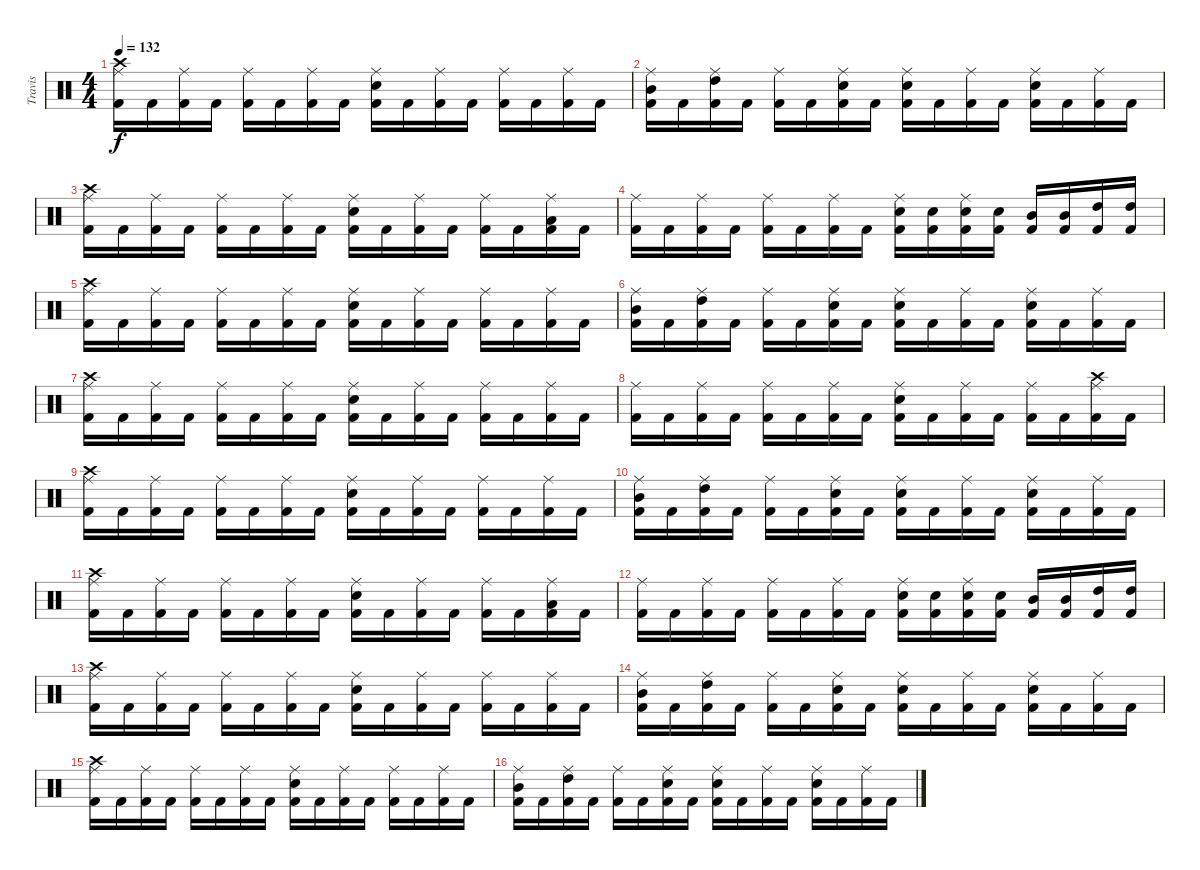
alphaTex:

\track ("Travis" "Travis") {instrument percussion}
\staff {score}
\articulation defaults
\ts (4 4)
\tempo 132
\clef neutral
\ks c
("Crash high (hit)" "Ride (middle)" "Kick (hit) 2").16{dy f} "Kick (hit) 2".16 ("Ride (middle)" "Kick (hit) 2").16 "Kick (hit) 2".16 ("Ride (middle)" "Kick (hit) 2").16 "Kick (hit) 2".16 ("Ride (middle)" "Kick (hit) 2").16 "Kick (hit) 2".16 ("Ride (middle)" "Snare (hit) 2" "Kick (hit) 2").16 "Kick (hit) 2".16 ("Ride (middle)" "Kick (hit) 2").16 "Kick (hit) 2".16 ("Ride (middle)" "Kick (hit) 2").16 "Kick (hit) 2".16 ("Ride (middle)" "Kick (hit) 2").16 "Kick (hit) 2".16 |
("Ride (middle)" "Mid Tom (hit)" "Kick (hit) 2").16 "Kick (hit) 2".16 ("Ride (middle)" "High Tom (hit)" "Kick (hit) 2").16 "Kick (hit) 2".16 ("Ride (middle)" "Kick (hit) 2").16 "Kick (hit) 2".16 ("Ride (middle)" "Snare (hit) 2" "Kick (hit) 2").16 "Kick (hit) 2".16 ("Ride (middle)" "Snare (hit) 2" "Kick (hit) 2").16 "Kick (hit) 2".16 ("Ride (middle)" "Kick (hit) 2").16 "Kick (hit) 2".16 ("Ride (middle)" "Snare (hit) 2" "Kick (hit) 2").16 "Kick (hit) 2".16 ("Ride (middle)" "Kick (hit) 2").16 "Kick (hit) 2".16 |
("Crash high (hit)" "Ride (middle)" "Kick (hit) 2").16 "Kick (hit) 2".16 ("Ride (middle)" "Kick (hit) 2").16 "Kick (hit) 2".16 ("Ride (middle)" "Kick (hit) 2").16 "Kick (hit) 2".16 ("Ride (middle)" "Kick (hit) 2").16 "Kick (hit) 2".16 ("Ride (middle)" "Snare (hit) 2" "Kick (hit) 2").16 "Kick (hit) 2".16 ("Ride (middle)" "Kick (hit) 2").16 "Kick (hit) 2".16 ("Ride (middle)" "Kick (hit) 2").16 "Kick (hit) 2".16 ("Ride (middle)" "Low Tom (hit)" "Kick (hit) 2").16 "Kick (hit) 2".16 |
("Ride (middle)" "Kick (hit) 2").16 "Kick (hit) 2".16 ("Ride (middle)" "Kick (hit) 2").16 "Kick (hit) 2".16 ("Ride (middle)" "Kick (hit) 2").16 "Kick (hit) 2".16 ("Ride (middle)" "Kick (hit) 2").16 "Kick (hit) 2".16 ("Ride (middle)" "Snare (hit) 2" "Kick (hit) 2").16 ("Snare (hit) 2" "Kick (hit) 2").16 ("Ride (middle)" "Snare (hit) 2" "Kick (hit) 2").16 ("Snare (hit) 2" "Kick (hit) 2").16 ("Mid Tom (hit)" "Kick (hit) 2").16 ("Mid Tom (hit)" "Kick (hit) 2").16 ("High Tom (hit)" "Kick (hit) 2").16 ("High Tom (hit)" "Kick (hit) 2").16 |
("Crash high (hit)" "Ride (middle)" "Kick (hit) 2").16 "Kick (hit) 2".16 ("Ride (middle)" "Kick (hit) 2").16 "Kick (hit) 2".16 ("Ride (middle)" "Kick (hit) 2").16 "Kick (hit) 2".16 ("Ride (middle)" "Kick (hit) 2").16 "Kick (hit) 2".16 ("Ride (middle)" "Snare (hit) 2" "Kick (hit) 2").16 "Kick (hit) 2".16 ("Ride (middle)" "Kick (hit) 2").16 "Kick (hit) 2".16 ("Ride (middle)" "Kick (hit) 2").16 "Kick (hit) 2".16 ("Ride (middle)" "Kick (hit) 2").16 "Kick (hit) 2".16 |
("Ride (middle)" "Mid Tom (hit)" "Kick (hit) 2").16 "Kick (hit) 2".16 ("Ride (middle)" "High Tom (hit)" "Kick (hit) 2").16 "Kick (hit) 2".16 ("Ride (middle)" "Kick (hit) 2").16 "Kick (hit) 2".16 ("Ride (middle)" "Snare (hit) 2" "Kick (hit) 2").16 "Kick (hit) 2".16 ("Ride (middle)" "Snare (hit) 2" "Kick (hit) 2").16 "Kick (hit) 2".16 ("Ride (middle)" "Kick (hit) 2").16 "Kick (hit) 2".16 ("Ride (middle)" "Snare (hit) 2" "Kick (hit) 2").16 "Kick (hit) 2".16 ("Ride (middle)" "Kick (hit) 2").16 "Kick (hit) 2".16 |
("Crash high (hit)" "Ride (middle)" "Kick (hit) 2").16{volume 8} "Kick (hit) 2".16 ("Ride (middle)" "Kick (hit) 2").16 "Kick (hit) 2".16 ("Ride (middle)" "Kick (hit) 2").16 "Kick (hit) 2".16 ("Ride (middle)" "Kick (hit) 2").16 "Kick (hit) 2".16 ("Ride (middle)" "Snare (hit) 2" "Kick (hit) 2").16 "Kick (hit) 2".16 ("Ride (middle)" "Kick (hit) 2").16 "Kick (hit) 2".16 ("Ride (middle)" "Kick (hit) 2").16 "Kick (hit) 2".16 ("Ride (middle)" "Kick (hit) 2").16 "Kick (hit) 2".16 |
("Ride (middle)" "Kick (hit) 2").16 "Kick (hit) 2".16 ("Ride (middle)" "Kick (hit) 2").16 "Kick (hit) 2".16 ("Ride (middle)" "Kick (hit) 2").16 "Kick (hit) 2".16 ("Ride (middle)" "Kick (hit) 2").16 "Kick (hit) 2".16 ("Ride (middle)" "Snare (hit) 2" "Kick (hit) 2").16 "Kick (hit) 2".16 ("Ride (middle)" "Kick (hit) 2").16 "Kick (hit) 2".16 ("Ride (middle)" "Kick (hit) 2").16 "Kick (hit) 2".16 ("Crash high (hit)" "Ride (middle)" "Kick (hit) 2").16 "Kick (hit) 2".16 |
("Crash high (hit)" "Ride (middle)" "Kick (hit) 2").16 "Kick (hit) 2".16 ("Ride (middle)" "Kick (hit) 2").16 "Kick (hit) 2".16 ("Ride (middle)" "Kick (hit) 2").16 "Kick (hit) 2".16 ("Ride (middle)" "Kick (hit) 2").16 "Kick (hit) 2".16 ("Ride (middle)" "Snare (hit) 2" "Kick (hit) 2").16 "Kick (hit) 2".16 ("Ride (middle)" "Kick (hit) 2").16 "Kick (hit) 2".16 ("Ride (middle)" "Kick (hit) 2").16 "Kick (hit) 2".16 ("Ride (middle)" "Kick (hit) 2").16 "Kick (hit) 2".16 |
("Ride (middle)" "Mid Tom (hit)" "Kick (hit) 2").16 "Kick (hit) 2".16 ("Ride (middle)" "High Tom (hit)" "Kick (hit) 2").16 "Kick (hit) 2".16 ("Ride (middle)" "Kick (hit) 2").16 "Kick (hit) 2".16 ("Ride (middle)" "Snare (hit) 2" "Kick (hit) 2").16 "Kick (hit) 2".16 ("Ride (middle)" "Snare (hit) 2" "Kick (hit) 2").16 "Kick (hit) 2".16 ("Ride (middle)" "Kick (hit) 2").16 "Kick (hit) 2".16 ("Ride (middle)" "Snare (hit) 2" "Kick (hit) 2").16 "Kick (hit) 2".16 ("Ride (middle)" "Kick (hit) 2").16 "Kick (hit) 2".16 |
("Crash high (hit)" "Ride (middle)" "Kick (hit) 2").16 "Kick (hit) 2".16 ("Ride (middle)" "Kick (hit) 2").16 "Kick (hit) 2".16 ("Ride (middle)" "Kick (hit) 2").16 "Kick (hit) 2".16 ("Ride (middle)" "Kick (hit) 2").16 "Kick (hit) 2".16 ("Ride (middle)" "Snare (hit) 2" "Kick (hit) 2").16 "Kick (hit) 2".16 ("Ride (middle)" "Kick (hit) 2").16 "Kick (hit) 2".16 ("Ride (middle)" "Kick (hit) 2").16 "Kick (hit) 2".16 ("Ride (middle)" "Low Tom (hit)" "Kick (hit) 2").16 "Kick (hit) 2".16 |
("Ride (middle)" "Kick (hit) 2").16 "Kick (hit) 2".16 ("Ride (middle)" "Kick (hit) 2").16 "Kick (hit) 2".16 ("Ride (middle)" "Kick (hit) 2").16 "Kick (hit) 2".16 ("Ride (middle)" "Kick (hit) 2").16 "Kick (hit) 2".16 ("Ride (middle)" "Snare (hit) 2" "Kick (hit) 2").16 ("Snare (hit) 2" "Kick (hit) 2").16 ("Ride (middle)" "Snare (hit) 2" "Kick (hit) 2").16 ("Snare (hit) 2" "Kick (hit) 2").16 ("Mid Tom (hit)" "Kick (hit) 2").16 ("Mid Tom (hit)" "Kick (hit) 2").16 ("High Tom (hit)" "Kick (hit) 2").16 ("High Tom (hit)" "Kick (hit) 2").16 |
("Crash high (hit)" "Ride (middle)" "Kick (hit) 2").16{volume 0} "Kick (hit) 2".16 ("Ride (middle)" "Kick (hit) 2").16 "Kick (hit) 2".16 ("Ride (middle)" "Kick (hit) 2").16 "Kick (hit) 2".16 ("Ride (middle)" "Kick (hit) 2").16 "Kick (hit) 2".16 ("Ride (middle)" "Snare (hit) 2" "Kick (hit) 2").16 "Kick (hit) 2".16 ("Ride (middle)" "Kick (hit) 2").16 "Kick (hit) 2".16 ("Ride (middle)" "Kick (hit) 2").16 "Kick (hit) 2".16 ("Ride (middle)" "Kick (hit) 2").16 "Kick (hit) 2".16 |
("Ride (middle)" "Mid Tom (hit)" "Kick (hit) 2").16 "Kick (hit) 2".16 ("Ride (middle)" "High Tom (hit)" "Kick (hit) 2").16 "Kick (hit) 2".16 ("Ride (middle)" "Kick (hit) 2").16 "Kick (hit) 2".16 ("Ride (middle)" "Snare (hit) 2" "Kick (hit) 2").16 "Kick (hit) 2".16 ("Ride (middle)" "Snare (hit) 2" "Kick (hit) 2").16 "Kick (hit) 2".16 ("Ride (middle)" "Kick (hit) 2").16 "Kick (hit) 2".16 ("Ride (middle)" "Snare (hit) 2" "Kick (hit) 2").16 "Kick (hit) 2".16 ("Ride (middle)" "Kick (hit) 2").16 "Kick (hit) 2".16 |
("Crash high (hit)" "Ride (middle)" "Kick (hit) 2").16 "Kick (hit) 2".16 ("Ride (middle)" "Kick (hit) 2").16 "Kick (hit) 2".16 ("Ride (middle)" "Kick (hit) 2").16 "Kick (hit) 2".16 ("Ride (middle)" "Kick (hit) 2").16 "Kick (hit) 2".16 ("Ride (middle)" "Snare (hit) 2" "Kick (hit) 2").16 "Kick (hit) 2".16 ("Ride (middle)" "Kick (hit) 2").16 "Kick (hit) 2".16 ("Ride (middle)" "Kick (hit) 2").16 "Kick (hit) 2".16 ("Ride (middle)" "Kick (hit) 2").16 "Kick (hit) 2".16 |
("Ride (middle)" "Mid Tom (hit)" "Kick (hit) 2").16 "Kick (hit) 2".16 ("Ride (middle)" "High Tom (hit)" "Kick (hit) 2").16 "Kick (hit) 2".16 ("Ride (middle)" "Kick (hit) 2").16 "Kick (hit) 2".16 ("Ride (middle)" "Snare (hit) 2" "Kick (hit) 2").16 "Kick (hit) 2".16 ("Ride (middle)" "Snare (hit) 2" "Kick (hit) 2").16 "Kick (hit) 2".16 ("Ride (middle)" "Kick (hit) 2").16 "Kick (hit) 2".16 ("Ride (middle)" "Snare (hit) 2" "Kick (hit) 2").16 "Kick (hit) 2".16 ("Ride (middle)" "Kick (hit) 2").16 "Kick (hit) 2".16
